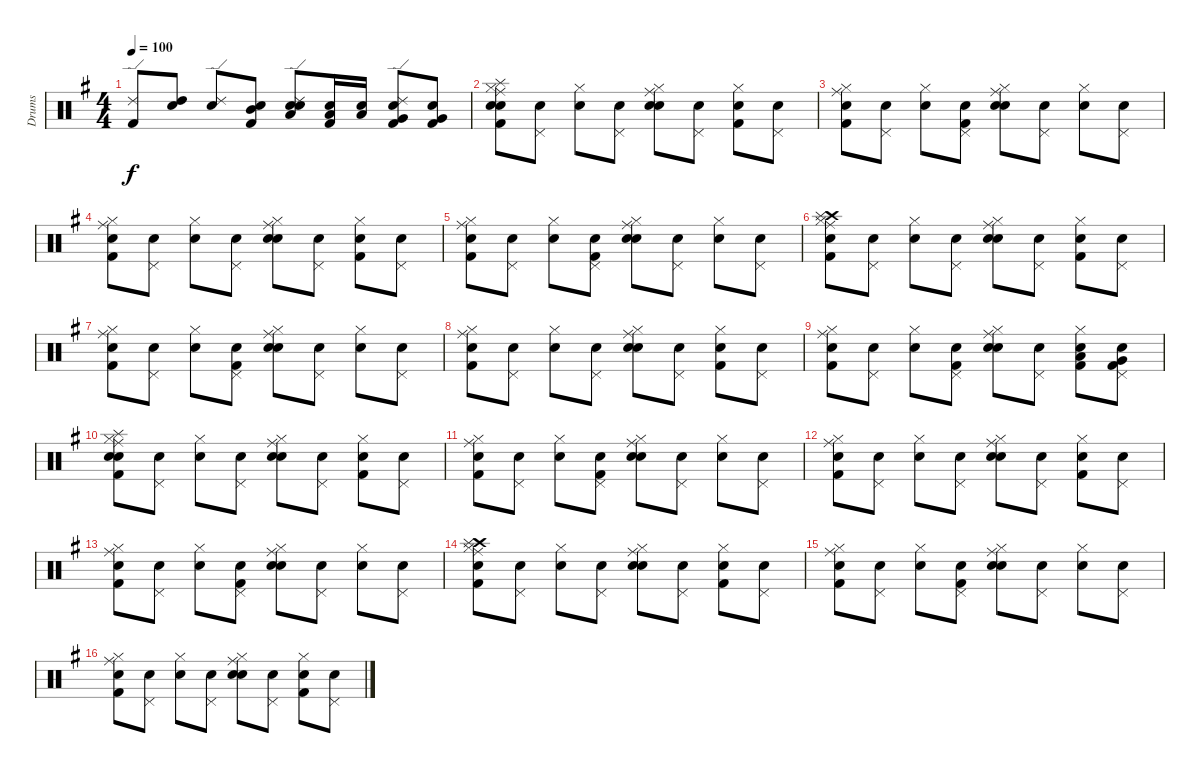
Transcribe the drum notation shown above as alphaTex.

\track ("Drums" "Drums") {instrument percussion}
\staff {score}
\articulation defaults
\ts (4 4)
\tempo 100
\clef neutral
\ks g
("Kick (hit) 2" "Ride (edge) 2").8{dy f} ("Snare (hit)" "High Tom (hit)").8 ("Snare (hit)" "Ride (edge) 2").8 ("Snare (hit)" "Mid Tom (hit)" "Kick (hit) 2").8 ("Snare (hit)" "Low Tom (hit)" "Snare (hit) 2" "Ride (edge) 2").8 ("Snare (hit)" "Low Tom (hit)" "Kick (hit) 2").16 ("Snare (hit)" "Low Tom (hit)").16 ("Snare (hit)" "Very Low Tom (hit)" "Kick (hit) 2" "Ride (edge) 2").8 ("Snare (hit)" "Very Low Tom (hit)" "Kick (hit) 2").8 |
("Snare (hit)" "Ride (middle)" "Hi-Hat (closed)" "Kick (hit) 2" "Snare (hit) 2" "Splash (hit)").8 ("Snare (hit)" "Pedal Hi-Hat (hit)").8 ("Snare (hit)" "Hi-Hat (closed)").8 ("Snare (hit)" "Pedal Hi-Hat (hit)").8 ("Snare (hit)" "Ride (middle)" "Hi-Hat (closed)" "Snare (hit) 2").8 ("Snare (hit)" "Pedal Hi-Hat (hit)").8 ("Snare (hit)" "Hi-Hat (closed)" "Kick (hit) 2").8 ("Snare (hit)" "Pedal Hi-Hat (hit)").8 |
("Snare (hit)" "Ride (middle)" "Hi-Hat (closed)" "Kick (hit) 2").8 ("Snare (hit)" "Pedal Hi-Hat (hit)").8 ("Snare (hit)" "Hi-Hat (closed)").8 ("Snare (hit)" "Pedal Hi-Hat (hit)" "Kick (hit) 2").8 ("Snare (hit)" "Ride (middle)" "Hi-Hat (closed)" "Snare (hit) 2").8 ("Snare (hit)" "Pedal Hi-Hat (hit)").8 ("Snare (hit)" "Hi-Hat (closed)").8 ("Snare (hit)" "Pedal Hi-Hat (hit)").8 |
("Snare (hit)" "Kick (hit) 2" "Ride (middle)" "Hi-Hat (closed)").8 ("Snare (hit)" "Pedal Hi-Hat (hit)").8 ("Snare (hit)" "Hi-Hat (closed)").8 ("Snare (hit)" "Pedal Hi-Hat (hit)").8 ("Snare (hit)" "Ride (middle)" "Hi-Hat (closed)" "Snare (hit) 2").8 ("Snare (hit)" "Pedal Hi-Hat (hit)").8 ("Snare (hit)" "Hi-Hat (closed)" "Kick (hit) 2").8 ("Snare (hit)" "Pedal Hi-Hat (hit)").8 |
("Snare (hit)" "Ride (middle)" "Hi-Hat (closed)" "Kick (hit) 2").8 ("Snare (hit)" "Pedal Hi-Hat (hit)").8 ("Snare (hit)" "Hi-Hat (closed)").8 ("Snare (hit)" "Pedal Hi-Hat (hit)" "Kick (hit) 2").8 ("Snare (hit)" "Ride (middle)" "Hi-Hat (closed)" "Snare (hit) 2").8 ("Snare (hit)" "Pedal Hi-Hat (hit)").8 ("Snare (hit)" "Hi-Hat (closed)").8 ("Snare (hit)" "Pedal Hi-Hat (hit)").8 |
("Snare (hit)" "Hi-Hat (closed)" "Ride (middle)" "Kick (hit) 2" "Crash high (hit)" "Splash (hit)").8 ("Snare (hit)" "Pedal Hi-Hat (hit)").8 ("Snare (hit)" "Hi-Hat (closed)").8 ("Snare (hit)" "Pedal Hi-Hat (hit)").8 ("Snare (hit)" "Ride (middle)" "Hi-Hat (closed)" "Snare (hit) 2").8 ("Snare (hit)" "Pedal Hi-Hat (hit)").8 ("Snare (hit)" "Hi-Hat (closed)" "Kick (hit) 2").8 ("Snare (hit)" "Pedal Hi-Hat (hit)").8 |
("Snare (hit)" "Ride (middle)" "Hi-Hat (closed)" "Kick (hit) 2").8 ("Snare (hit)" "Pedal Hi-Hat (hit)").8 ("Snare (hit)" "Hi-Hat (closed)").8 ("Snare (hit)" "Pedal Hi-Hat (hit)" "Kick (hit) 2").8 ("Snare (hit)" "Ride (middle)" "Hi-Hat (closed)" "Snare (hit) 2").8 ("Snare (hit)" "Pedal Hi-Hat (hit)").8 ("Snare (hit)" "Hi-Hat (closed)").8 ("Snare (hit)" "Pedal Hi-Hat (hit)").8 |
("Snare (hit)" "Kick (hit) 2" "Ride (middle)" "Hi-Hat (closed)").8 ("Snare (hit)" "Pedal Hi-Hat (hit)").8 ("Snare (hit)" "Hi-Hat (closed)").8 ("Snare (hit)" "Pedal Hi-Hat (hit)").8 ("Snare (hit)" "Ride (middle)" "Hi-Hat (closed)" "Snare (hit) 2").8 ("Snare (hit)" "Pedal Hi-Hat (hit)").8 ("Snare (hit)" "Hi-Hat (closed)" "Kick (hit) 2").8 ("Snare (hit)" "Pedal Hi-Hat (hit)").8 |
("Snare (hit)" "Ride (middle)" "Hi-Hat (closed)" "Kick (hit) 2").8 ("Snare (hit)" "Pedal Hi-Hat (hit)").8 ("Snare (hit)" "Hi-Hat (closed)").8 ("Snare (hit)" "Pedal Hi-Hat (hit)" "Kick (hit) 2").8 ("Snare (hit)" "Ride (middle)" "Hi-Hat (closed)" "Snare (hit) 2").8 ("Snare (hit)" "Pedal Hi-Hat (hit)").8 ("Snare (hit)" "Kick (hit) 2" "Low Tom (hit)" "Hi-Hat (closed)").8 ("Snare (hit)" "Very Low Tom (hit)" "Kick (hit) 2" "Pedal Hi-Hat (hit)").8 |
("Snare (hit)" "Ride (middle)" "Hi-Hat (closed)" "Kick (hit) 2" "Snare (hit) 2" "Splash (hit)").8 ("Snare (hit)" "Pedal Hi-Hat (hit)").8 ("Snare (hit)" "Hi-Hat (closed)").8 ("Snare (hit)" "Pedal Hi-Hat (hit)").8 ("Snare (hit)" "Ride (middle)" "Hi-Hat (closed)" "Snare (hit) 2").8 ("Snare (hit)" "Pedal Hi-Hat (hit)").8 ("Snare (hit)" "Hi-Hat (closed)" "Kick (hit) 2").8 ("Snare (hit)" "Pedal Hi-Hat (hit)").8 |
("Snare (hit)" "Ride (middle)" "Hi-Hat (closed)" "Kick (hit) 2").8 ("Snare (hit)" "Pedal Hi-Hat (hit)").8 ("Snare (hit)" "Hi-Hat (closed)").8 ("Snare (hit)" "Pedal Hi-Hat (hit)" "Kick (hit) 2").8 ("Snare (hit)" "Ride (middle)" "Hi-Hat (closed)" "Snare (hit) 2").8 ("Snare (hit)" "Pedal Hi-Hat (hit)").8 ("Snare (hit)" "Hi-Hat (closed)").8 ("Snare (hit)" "Pedal Hi-Hat (hit)").8 |
("Snare (hit)" "Kick (hit) 2" "Ride (middle)" "Hi-Hat (closed)").8 ("Snare (hit)" "Pedal Hi-Hat (hit)").8 ("Snare (hit)" "Hi-Hat (closed)").8 ("Snare (hit)" "Pedal Hi-Hat (hit)").8 ("Snare (hit)" "Ride (middle)" "Hi-Hat (closed)" "Snare (hit) 2").8 ("Snare (hit)" "Pedal Hi-Hat (hit)").8 ("Snare (hit)" "Hi-Hat (closed)" "Kick (hit) 2").8 ("Snare (hit)" "Pedal Hi-Hat (hit)").8 |
("Snare (hit)" "Ride (middle)" "Hi-Hat (closed)" "Kick (hit) 2").8 ("Snare (hit)" "Pedal Hi-Hat (hit)").8 ("Snare (hit)" "Hi-Hat (closed)").8 ("Snare (hit)" "Pedal Hi-Hat (hit)" "Kick (hit) 2").8 ("Snare (hit)" "Ride (middle)" "Hi-Hat (closed)" "Snare (hit) 2").8 ("Snare (hit)" "Pedal Hi-Hat (hit)").8 ("Snare (hit)" "Hi-Hat (closed)").8 ("Snare (hit)" "Pedal Hi-Hat (hit)").8 |
("Snare (hit)" "Hi-Hat (closed)" "Ride (middle)" "Kick (hit) 2" "Crash high (hit)" "Splash (hit)").8 ("Snare (hit)" "Pedal Hi-Hat (hit)").8 ("Snare (hit)" "Hi-Hat (closed)").8 ("Snare (hit)" "Pedal Hi-Hat (hit)").8 ("Snare (hit)" "Ride (middle)" "Hi-Hat (closed)" "Snare (hit) 2").8 ("Snare (hit)" "Pedal Hi-Hat (hit)").8 ("Snare (hit)" "Hi-Hat (closed)" "Kick (hit) 2").8 ("Snare (hit)" "Pedal Hi-Hat (hit)").8 |
("Snare (hit)" "Ride (middle)" "Hi-Hat (closed)" "Kick (hit) 2").8 ("Snare (hit)" "Pedal Hi-Hat (hit)").8 ("Snare (hit)" "Hi-Hat (closed)").8 ("Snare (hit)" "Pedal Hi-Hat (hit)" "Kick (hit) 2").8 ("Snare (hit)" "Ride (middle)" "Hi-Hat (closed)" "Snare (hit) 2").8 ("Snare (hit)" "Pedal Hi-Hat (hit)").8 ("Snare (hit)" "Hi-Hat (closed)").8 ("Snare (hit)" "Pedal Hi-Hat (hit)").8 |
("Snare (hit)" "Kick (hit) 2" "Ride (middle)" "Hi-Hat (closed)").8 ("Snare (hit)" "Pedal Hi-Hat (hit)").8 ("Snare (hit)" "Hi-Hat (closed)").8 ("Snare (hit)" "Pedal Hi-Hat (hit)").8 ("Snare (hit)" "Ride (middle)" "Hi-Hat (closed)" "Snare (hit) 2").8 ("Snare (hit)" "Pedal Hi-Hat (hit)").8 ("Snare (hit)" "Hi-Hat (closed)" "Kick (hit) 2").8 ("Snare (hit)" "Pedal Hi-Hat (hit)").8
